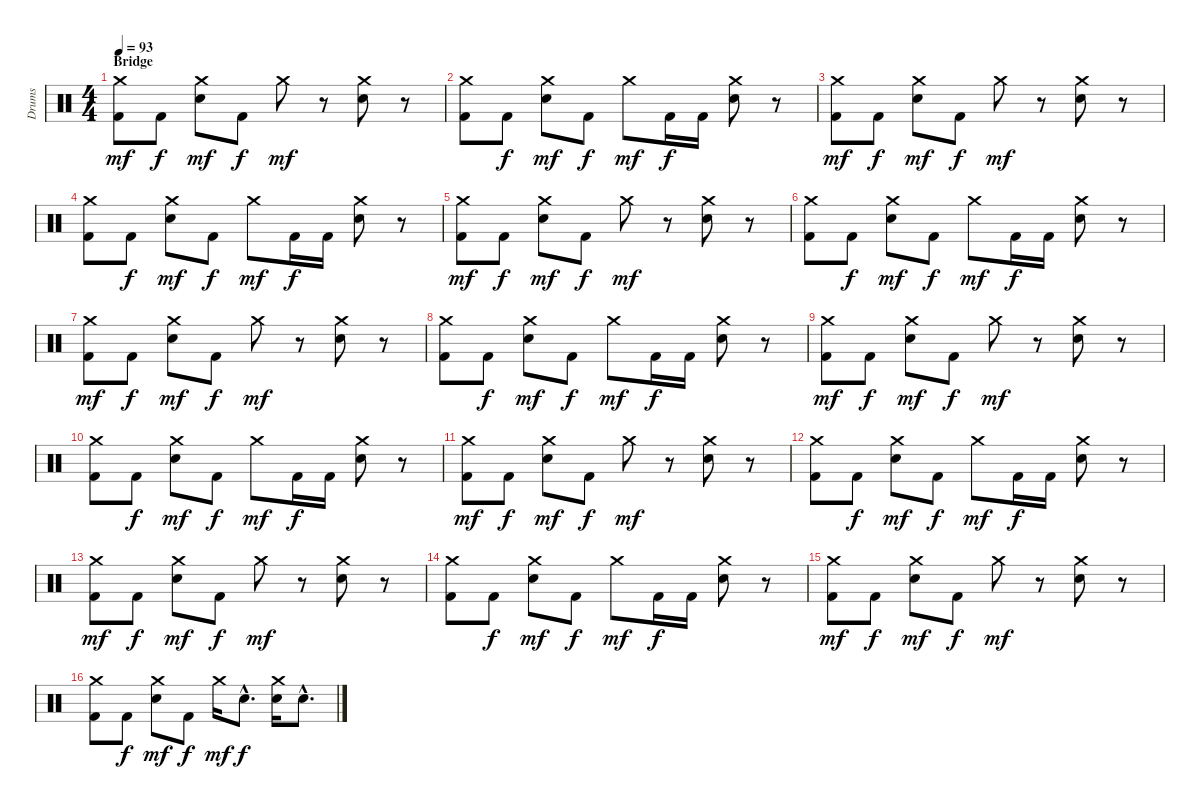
\track ("Drums" "Drums") {instrument percussion}
\staff {score}
\articulation defaults
\ts (4 4)
\section ("" "Bridge")
\tempo 93
\clef neutral
\ks c
("Kick (hit) 2" "Crash medium (hit)").8{dy mf} "Kick (hit) 2".8{dy f} ("Snare (hit) 2" "Crash medium (hit)").8{dy mf} "Kick (hit) 2".8{dy f} "Crash medium (hit)".8{dy mf} r.8 ("Snare (hit) 2" "Crash medium (hit)").8 r.8 |
("Kick (hit) 2" "Crash medium (hit)").8 "Kick (hit) 2".8{dy f} ("Snare (hit) 2" "Crash medium (hit)").8{dy mf} "Kick (hit) 2".8{dy f} "Crash medium (hit)".8{dy mf} "Kick (hit) 2".16{dy f} "Kick (hit) 2".16 ("Snare (hit) 2" "Crash medium (hit)").8 r.8 |
("Kick (hit) 2" "Crash medium (hit)").8{dy mf} "Kick (hit) 2".8{dy f} ("Snare (hit) 2" "Crash medium (hit)").8{dy mf} "Kick (hit) 2".8{dy f} "Crash medium (hit)".8{dy mf} r.8 ("Snare (hit) 2" "Crash medium (hit)").8 r.8 |
("Kick (hit) 2" "Crash medium (hit)").8 "Kick (hit) 2".8{dy f} ("Snare (hit) 2" "Crash medium (hit)").8{dy mf} "Kick (hit) 2".8{dy f} "Crash medium (hit)".8{dy mf} "Kick (hit) 2".16{dy f} "Kick (hit) 2".16 ("Snare (hit) 2" "Crash medium (hit)").8 r.8 |
("Kick (hit) 2" "Crash medium (hit)").8{dy mf} "Kick (hit) 2".8{dy f} ("Snare (hit) 2" "Crash medium (hit)").8{dy mf} "Kick (hit) 2".8{dy f} "Crash medium (hit)".8{dy mf} r.8 ("Snare (hit) 2" "Crash medium (hit)").8 r.8 |
("Kick (hit) 2" "Crash medium (hit)").8 "Kick (hit) 2".8{dy f} ("Snare (hit) 2" "Crash medium (hit)").8{dy mf} "Kick (hit) 2".8{dy f} "Crash medium (hit)".8{dy mf} "Kick (hit) 2".16{dy f} "Kick (hit) 2".16 ("Snare (hit) 2" "Crash medium (hit)").8 r.8 |
("Kick (hit) 2" "Crash medium (hit)").8{dy mf} "Kick (hit) 2".8{dy f} ("Snare (hit) 2" "Crash medium (hit)").8{dy mf} "Kick (hit) 2".8{dy f} "Crash medium (hit)".8{dy mf} r.8 ("Snare (hit) 2" "Crash medium (hit)").8 r.8 |
("Kick (hit) 2" "Crash medium (hit)").8 "Kick (hit) 2".8{dy f} ("Snare (hit) 2" "Crash medium (hit)").8{dy mf} "Kick (hit) 2".8{dy f} "Crash medium (hit)".8{dy mf} "Kick (hit) 2".16{dy f} "Kick (hit) 2".16 ("Snare (hit) 2" "Crash medium (hit)").8 r.8 |
("Kick (hit) 2" "Crash medium (hit)").8{dy mf} "Kick (hit) 2".8{dy f} ("Snare (hit) 2" "Crash medium (hit)").8{dy mf} "Kick (hit) 2".8{dy f} "Crash medium (hit)".8{dy mf} r.8 ("Snare (hit) 2" "Crash medium (hit)").8 r.8 |
("Kick (hit) 2" "Crash medium (hit)").8 "Kick (hit) 2".8{dy f} ("Snare (hit) 2" "Crash medium (hit)").8{dy mf} "Kick (hit) 2".8{dy f} "Crash medium (hit)".8{dy mf} "Kick (hit) 2".16{dy f} "Kick (hit) 2".16 ("Snare (hit) 2" "Crash medium (hit)").8 r.8 |
("Kick (hit) 2" "Crash medium (hit)").8{dy mf} "Kick (hit) 2".8{dy f} ("Snare (hit) 2" "Crash medium (hit)").8{dy mf} "Kick (hit) 2".8{dy f} "Crash medium (hit)".8{dy mf} r.8 ("Snare (hit) 2" "Crash medium (hit)").8 r.8 |
("Kick (hit) 2" "Crash medium (hit)").8 "Kick (hit) 2".8{dy f} ("Snare (hit) 2" "Crash medium (hit)").8{dy mf} "Kick (hit) 2".8{dy f} "Crash medium (hit)".8{dy mf} "Kick (hit) 2".16{dy f} "Kick (hit) 2".16 ("Snare (hit) 2" "Crash medium (hit)").8 r.8 |
("Kick (hit) 2" "Crash medium (hit)").8{dy mf} "Kick (hit) 2".8{dy f} ("Snare (hit) 2" "Crash medium (hit)").8{dy mf} "Kick (hit) 2".8{dy f} "Crash medium (hit)".8{dy mf} r.8 ("Snare (hit) 2" "Crash medium (hit)").8 r.8 |
("Kick (hit) 2" "Crash medium (hit)").8 "Kick (hit) 2".8{dy f} ("Snare (hit) 2" "Crash medium (hit)").8{dy mf} "Kick (hit) 2".8{dy f} "Crash medium (hit)".8{dy mf} "Kick (hit) 2".16{dy f} "Kick (hit) 2".16 ("Snare (hit) 2" "Crash medium (hit)").8 r.8 |
("Kick (hit) 2" "Crash medium (hit)").8{dy mf} "Kick (hit) 2".8{dy f} ("Snare (hit) 2" "Crash medium (hit)").8{dy mf} "Kick (hit) 2".8{dy f} "Crash medium (hit)".8{dy mf} r.8 ("Snare (hit) 2" "Crash medium (hit)").8 r.8 |
("Kick (hit) 2" "Crash medium (hit)").8 "Kick (hit) 2".8{dy f} ("Snare (hit) 2" "Crash medium (hit)").8{dy mf} "Kick (hit) 2".8{dy f} "Crash medium (hit)".16{dy mf} "Snare (hit) 2"{hac}.8{d dy f} ("Snare (hit) 2" "Crash medium (hit)").16 "Snare (hit) 2"{hac}.8{d}
